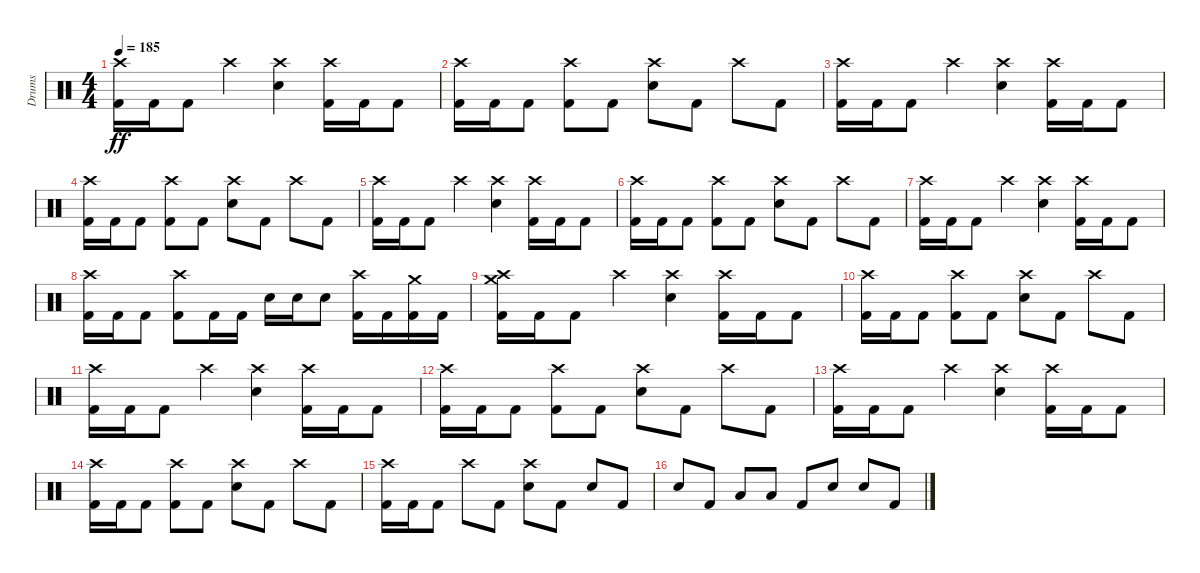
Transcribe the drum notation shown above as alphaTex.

\track ("Drums" "Drums") {instrument percussion}
\staff {score}
\articulation defaults
\ts (4 4)
\tempo 185
\clef neutral
\ks c
("Crash high (hit)" "Kick (hit) 2").16{dy ff} "Kick (hit) 2".16 "Kick (hit) 2".8 "Crash high (hit)".4 ("Crash high (hit)" "Electric Snare (hit)").4 ("Crash high (hit)" "Kick (hit) 2").16 "Kick (hit) 2".16 "Kick (hit) 2".8 |
("Crash high (hit)" "Kick (hit) 2").16 "Kick (hit) 2".16 "Kick (hit) 2".8 ("Crash high (hit)" "Kick (hit) 2").8 "Kick (hit) 2".8 ("Crash high (hit)" "Electric Snare (hit)").8 "Kick (hit) 2".8 "Crash high (hit)".8 "Kick (hit) 2".8 |
("Crash high (hit)" "Kick (hit) 2").16 "Kick (hit) 2".16 "Kick (hit) 2".8 "Crash high (hit)".4 ("Crash high (hit)" "Electric Snare (hit)").4 ("Crash high (hit)" "Kick (hit) 2").16 "Kick (hit) 2".16 "Kick (hit) 2".8 |
("Crash high (hit)" "Kick (hit) 2").16 "Kick (hit) 2".16 "Kick (hit) 2".8 ("Crash high (hit)" "Kick (hit) 2").8 "Kick (hit) 2".8 ("Crash high (hit)" "Electric Snare (hit)").8 "Kick (hit) 2".8 "Crash high (hit)".8 "Kick (hit) 2".8 |
("Crash high (hit)" "Kick (hit) 2").16 "Kick (hit) 2".16 "Kick (hit) 2".8 "Crash high (hit)".4 ("Crash high (hit)" "Electric Snare (hit)").4 ("Crash high (hit)" "Kick (hit) 2").16 "Kick (hit) 2".16 "Kick (hit) 2".8 |
("Crash high (hit)" "Kick (hit) 2").16 "Kick (hit) 2".16 "Kick (hit) 2".8 ("Crash high (hit)" "Kick (hit) 2").8 "Kick (hit) 2".8 ("Crash high (hit)" "Electric Snare (hit)").8 "Kick (hit) 2".8 "Crash high (hit)".8 "Kick (hit) 2".8 |
("Crash high (hit)" "Kick (hit) 2").16 "Kick (hit) 2".16 "Kick (hit) 2".8 "Crash high (hit)".4 ("Crash high (hit)" "Electric Snare (hit)").4 ("Crash high (hit)" "Kick (hit) 2").16 "Kick (hit) 2".16 "Kick (hit) 2".8 |
("Crash high (hit)" "Kick (hit) 2").16 "Kick (hit) 2".16 "Kick (hit) 2".8 ("Crash high (hit)" "Kick (hit) 2").8 "Kick (hit) 2".16 "Kick (hit) 2".16 "Electric Snare (hit)".16 "Electric Snare (hit)".16 "Electric Snare (hit)".8 ("Crash high (hit)" "Kick (hit) 2").16 "Kick (hit) 2".16 ("Crash medium (hit)" "Kick (hit) 2").16 "Kick (hit) 2".16 |
("Crash high (hit)" "Crash medium (hit)" "Kick (hit) 2").16 "Kick (hit) 2".16 "Kick (hit) 2".8 "Crash high (hit)".4 ("Crash high (hit)" "Electric Snare (hit)").4 ("Crash high (hit)" "Kick (hit) 2").16 "Kick (hit) 2".16 "Kick (hit) 2".8 |
("Crash high (hit)" "Kick (hit) 2").16 "Kick (hit) 2".16 "Kick (hit) 2".8 ("Crash high (hit)" "Kick (hit) 2").8 "Kick (hit) 2".8 ("Crash high (hit)" "Electric Snare (hit)").8 "Kick (hit) 2".8 "Crash high (hit)".8 "Kick (hit) 2".8 |
("Crash high (hit)" "Kick (hit) 2").16 "Kick (hit) 2".16 "Kick (hit) 2".8 "Crash high (hit)".4 ("Crash high (hit)" "Electric Snare (hit)").4 ("Crash high (hit)" "Kick (hit) 2").16 "Kick (hit) 2".16 "Kick (hit) 2".8 |
("Crash high (hit)" "Kick (hit) 2").16 "Kick (hit) 2".16 "Kick (hit) 2".8 ("Crash high (hit)" "Kick (hit) 2").8 "Kick (hit) 2".8 ("Crash high (hit)" "Electric Snare (hit)").8 "Kick (hit) 2".8 "Crash high (hit)".8 "Kick (hit) 2".8 |
("Crash high (hit)" "Kick (hit) 2").16 "Kick (hit) 2".16 "Kick (hit) 2".8 "Crash high (hit)".4 ("Crash high (hit)" "Electric Snare (hit)").4 ("Crash high (hit)" "Kick (hit) 2").16 "Kick (hit) 2".16 "Kick (hit) 2".8 |
("Crash high (hit)" "Kick (hit) 2").16 "Kick (hit) 2".16 "Kick (hit) 2".8 ("Crash high (hit)" "Kick (hit) 2").8 "Kick (hit) 2".8 ("Crash high (hit)" "Electric Snare (hit)").8 "Kick (hit) 2".8 "Crash high (hit)".8 "Kick (hit) 2".8 |
("Crash high (hit)" "Kick (hit) 2").16 "Kick (hit) 2".16 "Kick (hit) 2".8 "Crash high (hit)".8 "Kick (hit) 2".8 ("Crash high (hit)" "Electric Snare (hit)").8 "Kick (hit) 2".8 "Electric Snare (hit)".8 "Kick (hit) 2".8 |
"Electric Snare (hit)".8 "Kick (hit) 2".8 "Low Tom (hit)".8 "Low Tom (hit)".8 "Kick (hit) 2".8 "Electric Snare (hit)".8 "Electric Snare (hit)".8 "Kick (hit) 2".8
